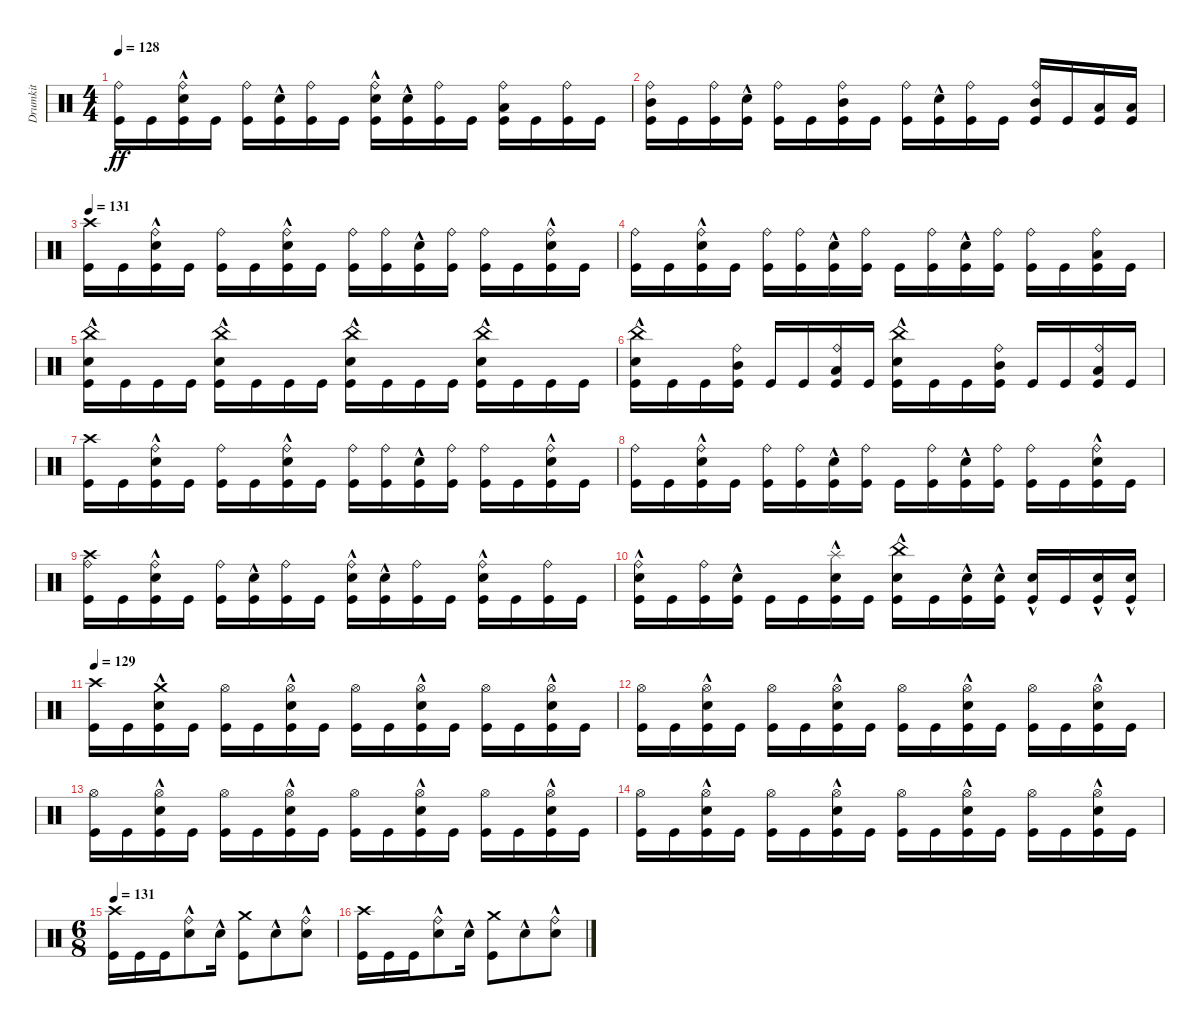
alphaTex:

\track ("Drumkit" "Drumkit") {instrument percussion}
\staff {score}
\articulation defaults
\ts (4 4)
\tempo 128
\clef neutral
\ks aminor
("Kick (hit)" "Ride (bell)").16{dy ff} "Kick (hit)".16 ("Kick (hit)" "Snare (hit) 2"{hac} "Ride (bell)").16 "Kick (hit)".16 ("Kick (hit)" "Ride (bell)").16 ("Kick (hit)" "Snare (hit) 2"{hac}).16 ("Kick (hit)" "Ride (bell)").16 "Kick (hit)".16 ("Kick (hit)" "Ride (bell)" "Snare (hit) 2"{hac}).16 ("Kick (hit)" "Snare (hit) 2"{hac}).16 ("Kick (hit)" "Ride (bell)").16 "Kick (hit)".16 ("Kick (hit)" "Ride (bell)" "Low Tom (hit)").16 "Kick (hit)".16 ("Kick (hit)" "Ride (bell)").16 "Kick (hit)".16 |
("Kick (hit)" "Ride (bell)" "Mid Tom (hit)").16 "Kick (hit)".16 ("Kick (hit)" "Ride (bell)").16 ("Kick (hit)" "Snare (hit) 2"{hac}).16 ("Kick (hit)" "Ride (bell)").16 "Kick (hit)".16 ("Kick (hit)" "Ride (bell)" "Mid Tom (hit)").16 "Kick (hit)".16 ("Kick (hit)" "Ride (bell)").16 ("Kick (hit)" "Snare (hit) 2"{hac}).16 ("Kick (hit)" "Ride (bell)").16 "Kick (hit)".16 ("Kick (hit)" "Mid Tom (hit)" "Ride (bell)").16 "Kick (hit)".16 ("Kick (hit)" "Low Tom (hit)").16 ("Kick (hit)" "Low Tom (hit)").16 |
\tempo 131
("Kick (hit)" "Crash high (hit)").16 "Kick (hit)".16 ("Kick (hit)" "Snare (hit) 2"{hac} "Ride (bell)").16 "Kick (hit)".16 ("Kick (hit)" "Ride (bell)").16 "Kick (hit)".16 ("Kick (hit)" "Snare (hit) 2"{hac} "Ride (bell)").16 "Kick (hit)".16 ("Kick (hit)" "Ride (bell)").16 ("Kick (hit)" "Ride (bell)").16 ("Kick (hit)" "Snare (hit) 2"{hac}).16 ("Kick (hit)" "Ride (bell)").16 ("Kick (hit)" "Ride (bell)").16 "Kick (hit)".16 ("Kick (hit)" "Snare (hit) 2"{hac} "Ride (bell)").16 "Kick (hit)".16 |
("Kick (hit)" "Ride (bell)").16 "Kick (hit)".16 ("Kick (hit)" "Snare (hit) 2"{hac} "Ride (bell)").16 "Kick (hit)".16 ("Kick (hit)" "Ride (bell)").16 ("Kick (hit)" "Ride (bell)").16 ("Kick (hit)" "Snare (hit) 2"{hac}).16 ("Kick (hit)" "Ride (bell)").16 "Kick (hit)".16 ("Kick (hit)" "Ride (bell)").16 ("Kick (hit)" "Snare (hit) 2"{hac}).16 ("Kick (hit)" "Ride (bell)").16 ("Kick (hit)" "Ride (bell)").16 "Kick (hit)".16 ("Kick (hit)" "Ride (bell)" "Low Tom (hit)").16 "Kick (hit)".16 |
("Kick (hit)" "Snare (hit) 2"{hac} "China (hit)").16 "Kick (hit)".16 "Kick (hit)".16 "Kick (hit)".16 ("Kick (hit)" "Snare (hit) 2"{hac} "China (hit)").16 "Kick (hit)".16 "Kick (hit)".16 "Kick (hit)".16 ("Kick (hit)" "Snare (hit) 2"{hac} "China (hit)").16 "Kick (hit)".16 "Kick (hit)".16 "Kick (hit)".16 ("Kick (hit)" "Snare (hit) 2"{hac} "China (hit)").16 "Kick (hit)".16 "Kick (hit)".16 "Kick (hit)".16 |
("Kick (hit)" "Snare (hit) 2"{hac} "China (hit)").16 "Kick (hit)".16 "Kick (hit)".16 ("Kick (hit)" "Mid Tom (hit)" "Ride (bell)").16 "Kick (hit)".16 "Kick (hit)".16 ("Kick (hit)" "Low Tom (hit)" "Ride (bell)").16 "Kick (hit)".16 ("Kick (hit)" "Snare (hit) 2"{hac} "China (hit)").16 "Kick (hit)".16 "Kick (hit)".16 ("Kick (hit)" "Mid Tom (hit)" "Ride (bell)").16 "Kick (hit)".16 "Kick (hit)".16 ("Kick (hit)" "Low Tom (hit)" "Ride (bell)").16 "Kick (hit)".16 |
("Kick (hit)" "Crash high (hit)").16 "Kick (hit)".16 ("Kick (hit)" "Snare (hit) 2"{hac} "Ride (bell)").16 "Kick (hit)".16 ("Kick (hit)" "Ride (bell)").16 "Kick (hit)".16 ("Kick (hit)" "Snare (hit) 2"{hac} "Ride (bell)").16 "Kick (hit)".16 ("Kick (hit)" "Ride (bell)").16 ("Kick (hit)" "Ride (bell)").16 ("Kick (hit)" "Snare (hit) 2"{hac}).16 ("Kick (hit)" "Ride (bell)").16 ("Kick (hit)" "Ride (bell)").16 "Kick (hit)".16 ("Kick (hit)" "Snare (hit) 2"{hac} "Ride (bell)").16 "Kick (hit)".16 |
("Kick (hit)" "Ride (bell)").16 "Kick (hit)".16 ("Kick (hit)" "Snare (hit) 2"{hac} "Ride (bell)").16 "Kick (hit)".16 ("Kick (hit)" "Ride (bell)").16 ("Kick (hit)" "Ride (bell)").16 ("Kick (hit)" "Snare (hit) 2"{hac}).16 ("Kick (hit)" "Ride (bell)").16 "Kick (hit)".16 ("Kick (hit)" "Ride (bell)").16 ("Kick (hit)" "Snare (hit) 2"{hac}).16 ("Kick (hit)" "Ride (bell)").16 ("Kick (hit)" "Ride (bell)").16 "Kick (hit)".16 ("Kick (hit)" "Ride (bell)" "Snare (hit) 2"{hac}).16 "Kick (hit)".16 |
("Kick (hit)" "Ride (bell)" "Crash high (hit)").16 "Kick (hit)".16 ("Kick (hit)" "Ride (bell)" "Snare (hit) 2"{hac}).16 "Kick (hit)".16 ("Kick (hit)" "Ride (bell)").16 ("Kick (hit)" "Snare (hit) 2"{hac}).16 ("Kick (hit)" "Ride (bell)").16 "Kick (hit)".16 ("Kick (hit)" "Ride (bell)" "Snare (hit) 2"{hac}).16 ("Kick (hit)" "Snare (hit) 2"{hac}).16 ("Kick (hit)" "Ride (bell)").16 "Kick (hit)".16 ("Kick (hit)" "Ride (bell)" "Snare (hit) 2"{hac}).16 "Kick (hit)".16 ("Kick (hit)" "Ride (bell)").16 "Kick (hit)".16 |
("Kick (hit)" "Ride (bell)" "Snare (hit) 2"{hac}).16 "Kick (hit)".16 ("Kick (hit)" "Ride (bell)").16 ("Kick (hit)" "Snare (hit) 2"{hac}).16 "Kick (hit)".16 "Kick (hit)".16 ("Kick (hit)" "Snare (hit) 2"{hac} "Splash (hit)").16 "Kick (hit)".16 ("Kick (hit)" "Snare (hit) 2"{hac} "China (hit)").16 "Kick (hit)".16 ("Kick (hit)" "Snare (hit) 2"{hac}).16 ("Kick (hit)" "Snare (hit) 2"{hac}).16 ("Kick (hit)" "Snare (hit) 2"{hac}).16 "Kick (hit)".16 ("Kick (hit)" "Snare (hit) 2"{hac}).16 ("Kick (hit)" "Snare (hit) 2"{hac}).16 |
\tempo 129
("Kick (hit)" "Crash high (hit)").16 "Kick (hit)".16 ("Kick (hit)" "Crash medium (hit)" "Snare (hit) 2"{hac}).16 "Kick (hit)".16 ("Kick (hit)" "Hi-Hat (open)").16 "Kick (hit)".16 ("Kick (hit)" "Hi-Hat (open)" "Snare (hit) 2"{hac}).16 "Kick (hit)".16 ("Kick (hit)" "Hi-Hat (open)").16 "Kick (hit)".16 ("Kick (hit)" "Hi-Hat (open)" "Snare (hit) 2"{hac}).16 "Kick (hit)".16 ("Kick (hit)" "Hi-Hat (open)").16 "Kick (hit)".16 ("Kick (hit)" "Hi-Hat (open)" "Snare (hit) 2"{hac}).16 "Kick (hit)".16 |
("Kick (hit)" "Hi-Hat (open)").16 "Kick (hit)".16 ("Kick (hit)" "Hi-Hat (open)" "Snare (hit) 2"{hac}).16 "Kick (hit)".16 ("Kick (hit)" "Hi-Hat (open)").16 "Kick (hit)".16 ("Kick (hit)" "Hi-Hat (open)" "Snare (hit) 2"{hac}).16 "Kick (hit)".16 ("Kick (hit)" "Hi-Hat (open)").16 "Kick (hit)".16 ("Kick (hit)" "Hi-Hat (open)" "Snare (hit) 2"{hac}).16 "Kick (hit)".16 ("Kick (hit)" "Hi-Hat (open)").16 "Kick (hit)".16 ("Kick (hit)" "Hi-Hat (open)" "Snare (hit) 2"{hac}).16 "Kick (hit)".16 |
("Kick (hit)" "Hi-Hat (open)").16 "Kick (hit)".16 ("Kick (hit)" "Hi-Hat (open)" "Snare (hit) 2"{hac}).16 "Kick (hit)".16 ("Kick (hit)" "Hi-Hat (open)").16 "Kick (hit)".16 ("Kick (hit)" "Hi-Hat (open)" "Snare (hit) 2"{hac}).16 "Kick (hit)".16 ("Kick (hit)" "Hi-Hat (open)").16 "Kick (hit)".16 ("Kick (hit)" "Hi-Hat (open)" "Snare (hit) 2"{hac}).16 "Kick (hit)".16 ("Kick (hit)" "Hi-Hat (open)").16 "Kick (hit)".16 ("Kick (hit)" "Hi-Hat (open)" "Snare (hit) 2"{hac}).16 "Kick (hit)".16 |
("Kick (hit)" "Hi-Hat (open)").16 "Kick (hit)".16 ("Kick (hit)" "Hi-Hat (open)" "Snare (hit) 2"{hac}).16 "Kick (hit)".16 ("Kick (hit)" "Hi-Hat (open)").16 "Kick (hit)".16 ("Kick (hit)" "Hi-Hat (open)" "Snare (hit) 2"{hac}).16 "Kick (hit)".16 ("Kick (hit)" "Hi-Hat (open)").16 "Kick (hit)".16 ("Kick (hit)" "Hi-Hat (open)" "Snare (hit) 2"{hac}).16 "Kick (hit)".16 ("Kick (hit)" "Hi-Hat (open)").16 "Kick (hit)".16 ("Kick (hit)" "Hi-Hat (open)" "Snare (hit) 2"{hac}).16 "Kick (hit)".16 |
\ts (6 8)
\tempo 131
("Kick (hit)" "Crash high (hit)").16 "Kick (hit)".16 "Kick (hit)".16 ("Snare (hit) 2"{hac} "Ride (bell)").8 "Snare (hit) 2"{hac}.16 ("Kick (hit)" "Crash medium (hit)").8 "Snare (hit) 2"{hac}.8 ("Snare (hit) 2"{hac} "Ride (bell)").8 |
("Kick (hit)" "Crash high (hit)").16 "Kick (hit)".16 "Kick (hit)".16 ("Snare (hit) 2"{hac} "Ride (bell)").8 "Snare (hit) 2"{hac}.16 ("Kick (hit)" "Crash medium (hit)").8 "Snare (hit) 2"{hac}.8 ("Snare (hit) 2"{hac} "Ride (bell)").8
